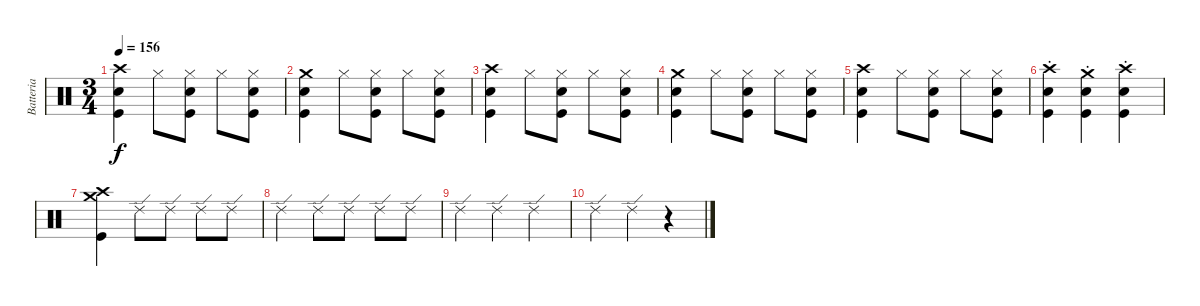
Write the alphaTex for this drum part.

\track ("Batteria" "Batteria") {instrument percussion}
\staff {score}
\articulation defaults
\ts (3 4)
\section ("" "")
\tempo 156
\clef neutral
\ks c
("Crash high (hit)" "Electric Snare (hit)" "Kick (hit)").4{dy f} "Hi-Hat (closed)".8 ("Hi-Hat (closed)" "Electric Snare (hit)" "Kick (hit)").8 "Hi-Hat (closed)".8 ("Hi-Hat (closed)" "Electric Snare (hit)" "Kick (hit)").8 |
("Crash medium (hit)" "Electric Snare (hit)" "Kick (hit)").4 "Hi-Hat (closed)".8 ("Hi-Hat (closed)" "Electric Snare (hit)" "Kick (hit)").8 "Hi-Hat (closed)".8 ("Hi-Hat (closed)" "Electric Snare (hit)" "Kick (hit)").8 |
("Crash high (hit)" "Electric Snare (hit)" "Kick (hit)").4 "Hi-Hat (closed)".8 ("Hi-Hat (closed)" "Electric Snare (hit)" "Kick (hit)").8 "Hi-Hat (closed)".8 ("Hi-Hat (closed)" "Electric Snare (hit)" "Kick (hit)").8 |
("Crash medium (hit)" "Electric Snare (hit)" "Kick (hit)").4 "Hi-Hat (closed)".8 ("Hi-Hat (closed)" "Electric Snare (hit)" "Kick (hit)").8 "Hi-Hat (closed)".8 ("Hi-Hat (closed)" "Electric Snare (hit)" "Kick (hit)").8 |
("Crash high (hit)" "Electric Snare (hit)" "Kick (hit)").4 "Hi-Hat (closed)".8 ("Hi-Hat (closed)" "Electric Snare (hit)" "Kick (hit)").8 "Hi-Hat (closed)".8 ("Hi-Hat (closed)" "Electric Snare (hit)" "Kick (hit)").8 |
("Crash high (hit)"{st} "Electric Snare (hit)"{st} "Kick (hit)"{st}).4 ("Crash medium (hit)"{st} "Electric Snare (hit)"{st} "Kick (hit)"{st}).4 ("Crash high (hit)"{st} "Electric Snare (hit)"{st} "Kick (hit)"{st}).4 |
("Crash medium (hit)" "Crash high (hit)" "Kick (hit)").4 "Ride (edge) 2".8 "Ride (edge) 2".8 "Ride (edge) 2".8 "Ride (edge) 2".8 |
"Ride (edge) 2".4 "Ride (edge) 2".8 "Ride (edge) 2".8 "Ride (edge) 2".8 "Ride (edge) 2".8 |
"Ride (edge) 2".4 "Ride (edge) 2".4 "Ride (edge) 2".4 |
"Ride (edge) 2".4 "Ride (edge) 2".4 r.4
